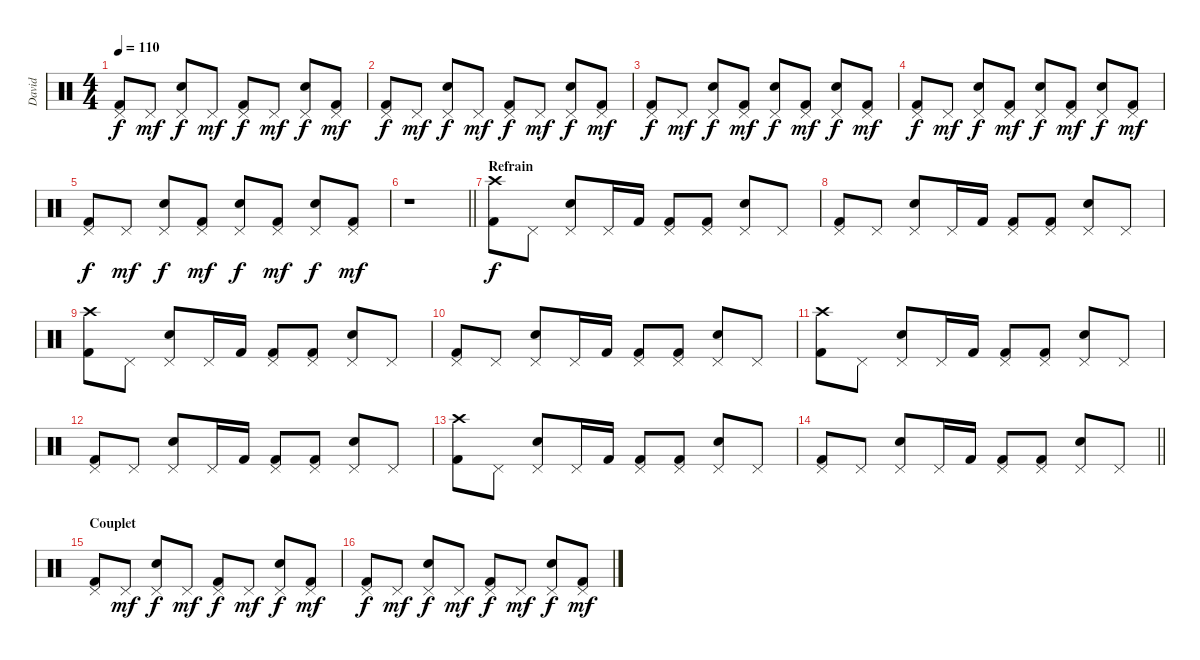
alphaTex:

\track ("David" "David") {instrument percussion}
\staff {score}
\articulation defaults
\ts (4 4)
\tempo 110
\clef neutral
\ks c
("Pedal Hi-Hat (hit)" "Kick (hit) 2").8{dy f} "Pedal Hi-Hat (hit)".8{dy mf} ("Pedal Hi-Hat (hit)" "Electric Snare (hit)").8{dy f} "Pedal Hi-Hat (hit)".8{dy mf} ("Pedal Hi-Hat (hit)" "Kick (hit) 2").8{dy f} "Pedal Hi-Hat (hit)".8{dy mf} ("Pedal Hi-Hat (hit)" "Electric Snare (hit)").8{dy f} ("Pedal Hi-Hat (hit)" "Kick (hit) 2").8{dy mf} |
("Pedal Hi-Hat (hit)" "Kick (hit) 2").8{dy f} "Pedal Hi-Hat (hit)".8{dy mf} ("Pedal Hi-Hat (hit)" "Electric Snare (hit)").8{dy f} "Pedal Hi-Hat (hit)".8{dy mf} ("Pedal Hi-Hat (hit)" "Kick (hit) 2").8{dy f} "Pedal Hi-Hat (hit)".8{dy mf} ("Pedal Hi-Hat (hit)" "Electric Snare (hit)").8{dy f} ("Pedal Hi-Hat (hit)" "Kick (hit) 2").8{dy mf} |
("Pedal Hi-Hat (hit)" "Kick (hit) 2").8{dy f} "Pedal Hi-Hat (hit)".8{dy mf} ("Pedal Hi-Hat (hit)" "Electric Snare (hit)").8{dy f} ("Pedal Hi-Hat (hit)" "Kick (hit) 2").8{dy mf} ("Pedal Hi-Hat (hit)" "Electric Snare (hit)").8{dy f} ("Pedal Hi-Hat (hit)" "Kick (hit) 2").8{dy mf} ("Pedal Hi-Hat (hit)" "Electric Snare (hit)").8{dy f} ("Pedal Hi-Hat (hit)" "Kick (hit) 2").8{dy mf} |
("Pedal Hi-Hat (hit)" "Kick (hit) 2").8{dy f} "Pedal Hi-Hat (hit)".8{dy mf} ("Pedal Hi-Hat (hit)" "Electric Snare (hit)").8{dy f} ("Pedal Hi-Hat (hit)" "Kick (hit) 2").8{dy mf} ("Pedal Hi-Hat (hit)" "Electric Snare (hit)").8{dy f} ("Pedal Hi-Hat (hit)" "Kick (hit) 2").8{dy mf} ("Pedal Hi-Hat (hit)" "Electric Snare (hit)").8{dy f} ("Pedal Hi-Hat (hit)" "Kick (hit) 2").8{dy mf} |
("Pedal Hi-Hat (hit)" "Kick (hit) 2").8{dy f} "Pedal Hi-Hat (hit)".8{dy mf} ("Pedal Hi-Hat (hit)" "Electric Snare (hit)").8{dy f} ("Pedal Hi-Hat (hit)" "Kick (hit) 2").8{dy mf} ("Pedal Hi-Hat (hit)" "Electric Snare (hit)").8{dy f} ("Pedal Hi-Hat (hit)" "Kick (hit) 2").8{dy mf} ("Pedal Hi-Hat (hit)" "Electric Snare (hit)").8{dy f} ("Pedal Hi-Hat (hit)" "Kick (hit) 2").8{dy mf} |
\barLineRight lightlight
r.1 |
\section ("" "Refrain")
("Crash high (hit)" "Kick (hit) 2").8{dy f} "Pedal Hi-Hat (hit)".8 ("Pedal Hi-Hat (hit)" "Electric Snare (hit)").8 "Pedal Hi-Hat (hit)".16 "Kick (hit) 2".16 ("Pedal Hi-Hat (hit)" "Kick (hit) 2").8 ("Pedal Hi-Hat (hit)" "Kick (hit) 2").8 ("Pedal Hi-Hat (hit)" "Electric Snare (hit)").8 "Pedal Hi-Hat (hit)".8 |
("Pedal Hi-Hat (hit)" "Kick (hit) 2").8 "Pedal Hi-Hat (hit)".8 ("Pedal Hi-Hat (hit)" "Electric Snare (hit)").8 "Pedal Hi-Hat (hit)".16 "Kick (hit) 2".16 ("Pedal Hi-Hat (hit)" "Kick (hit) 2").8 ("Pedal Hi-Hat (hit)" "Kick (hit) 2").8 ("Pedal Hi-Hat (hit)" "Electric Snare (hit)").8 "Pedal Hi-Hat (hit)".8 |
("Crash high (hit)" "Kick (hit) 2").8 "Pedal Hi-Hat (hit)".8 ("Pedal Hi-Hat (hit)" "Electric Snare (hit)").8 "Pedal Hi-Hat (hit)".16 "Kick (hit) 2".16 ("Pedal Hi-Hat (hit)" "Kick (hit) 2").8 ("Pedal Hi-Hat (hit)" "Kick (hit) 2").8 ("Pedal Hi-Hat (hit)" "Electric Snare (hit)").8 "Pedal Hi-Hat (hit)".8 |
("Pedal Hi-Hat (hit)" "Kick (hit) 2").8 "Pedal Hi-Hat (hit)".8 ("Pedal Hi-Hat (hit)" "Electric Snare (hit)").8 "Pedal Hi-Hat (hit)".16 "Kick (hit) 2".16 ("Pedal Hi-Hat (hit)" "Kick (hit) 2").8 ("Pedal Hi-Hat (hit)" "Kick (hit) 2").8 ("Pedal Hi-Hat (hit)" "Electric Snare (hit)").8 "Pedal Hi-Hat (hit)".8 |
("Crash high (hit)" "Kick (hit) 2").8 "Pedal Hi-Hat (hit)".8 ("Pedal Hi-Hat (hit)" "Electric Snare (hit)").8 "Pedal Hi-Hat (hit)".16 "Kick (hit) 2".16 ("Pedal Hi-Hat (hit)" "Kick (hit) 2").8 ("Pedal Hi-Hat (hit)" "Kick (hit) 2").8 ("Pedal Hi-Hat (hit)" "Electric Snare (hit)").8 "Pedal Hi-Hat (hit)".8 |
("Pedal Hi-Hat (hit)" "Kick (hit) 2").8 "Pedal Hi-Hat (hit)".8 ("Pedal Hi-Hat (hit)" "Electric Snare (hit)").8 "Pedal Hi-Hat (hit)".16 "Kick (hit) 2".16 ("Pedal Hi-Hat (hit)" "Kick (hit) 2").8 ("Pedal Hi-Hat (hit)" "Kick (hit) 2").8 ("Pedal Hi-Hat (hit)" "Electric Snare (hit)").8 "Pedal Hi-Hat (hit)".8 |
("Crash high (hit)" "Kick (hit) 2").8 "Pedal Hi-Hat (hit)".8 ("Pedal Hi-Hat (hit)" "Electric Snare (hit)").8 "Pedal Hi-Hat (hit)".16 "Kick (hit) 2".16 ("Pedal Hi-Hat (hit)" "Kick (hit) 2").8 ("Pedal Hi-Hat (hit)" "Kick (hit) 2").8 ("Pedal Hi-Hat (hit)" "Electric Snare (hit)").8 "Pedal Hi-Hat (hit)".8 |
\barLineRight lightlight
("Pedal Hi-Hat (hit)" "Kick (hit) 2").8 "Pedal Hi-Hat (hit)".8 ("Pedal Hi-Hat (hit)" "Electric Snare (hit)").8 "Pedal Hi-Hat (hit)".16 "Kick (hit) 2".16 ("Pedal Hi-Hat (hit)" "Kick (hit) 2").8 ("Pedal Hi-Hat (hit)" "Kick (hit) 2").8 ("Pedal Hi-Hat (hit)" "Electric Snare (hit)").8 "Pedal Hi-Hat (hit)".8 |
\section ("" "Couplet")
("Pedal Hi-Hat (hit)" "Kick (hit) 2").8 "Pedal Hi-Hat (hit)".8{dy mf} ("Pedal Hi-Hat (hit)" "Electric Snare (hit)").8{dy f} "Pedal Hi-Hat (hit)".8{dy mf} ("Pedal Hi-Hat (hit)" "Kick (hit) 2").8{dy f} "Pedal Hi-Hat (hit)".8{dy mf} ("Pedal Hi-Hat (hit)" "Electric Snare (hit)").8{dy f} ("Pedal Hi-Hat (hit)" "Kick (hit) 2").8{dy mf} |
("Pedal Hi-Hat (hit)" "Kick (hit) 2").8{dy f} "Pedal Hi-Hat (hit)".8{dy mf} ("Pedal Hi-Hat (hit)" "Electric Snare (hit)").8{dy f} "Pedal Hi-Hat (hit)".8{dy mf} ("Pedal Hi-Hat (hit)" "Kick (hit) 2").8{dy f} "Pedal Hi-Hat (hit)".8{dy mf} ("Pedal Hi-Hat (hit)" "Electric Snare (hit)").8{dy f} ("Pedal Hi-Hat (hit)" "Kick (hit) 2").8{dy mf}
